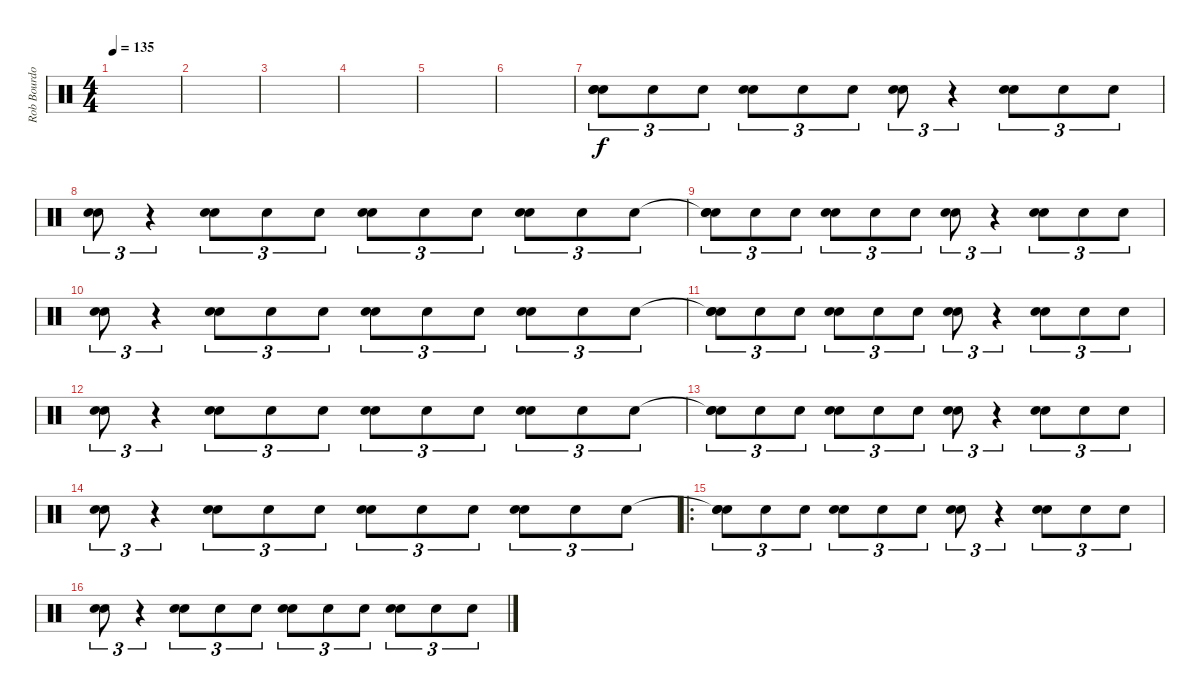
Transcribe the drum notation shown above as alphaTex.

\track ("Rob Bourdon [Drums]" "Rob Bourdo") {instrument percussion bank 5}
\staff {score}
\articulation defaults
\ts (4 4)
\tempo 135
\clef neutral
\ks c
|
|
|
|
|
|
("Snare (hit)" "Hand Clap (hit)" "Electric Snare (hit)").8{tu (3 2) volume 3} "Electric Snare (hit)".8{tu (3 2)} "Electric Snare (hit)".8{tu (3 2)} ("Hand Clap (hit)" "Electric Snare (hit)").8{tu (3 2)} "Electric Snare (hit)".8{tu (3 2)} "Electric Snare (hit)".8{tu (3 2)} ("Hand Clap (hit)" "Electric Snare (hit)").8{tu (3 2)} r.4{tu (3 2)} ("Hand Clap (hit)" "Electric Snare (hit)").8{tu (3 2)} "Electric Snare (hit)".8{tu (3 2)} "Electric Snare (hit)".8{tu (3 2)} |
("Hand Clap (hit)" "Electric Snare (hit)").8{tu (3 2)} r.4{tu (3 2)} ("Hand Clap (hit)" "Electric Snare (hit)").8{tu (3 2)} "Electric Snare (hit)".8{tu (3 2)} "Electric Snare (hit)".8{tu (3 2)} ("Hand Clap (hit)" "Electric Snare (hit)").8{tu (3 2)} "Electric Snare (hit)".8{tu (3 2)} "Electric Snare (hit)".8{tu (3 2)} ("Hand Clap (hit)" "Electric Snare (hit)").8{tu (3 2)} "Electric Snare (hit)".8{tu (3 2)} "Electric Snare (hit)".8{tu (3 2)} |
("Snare (hit)"{t} "Hand Clap (hit)" "Electric Snare (hit)").8{tu (3 2)} "Electric Snare (hit)".8{tu (3 2)} "Electric Snare (hit)".8{tu (3 2)} ("Hand Clap (hit)" "Electric Snare (hit)").8{tu (3 2)} "Electric Snare (hit)".8{tu (3 2)} "Electric Snare (hit)".8{tu (3 2)} ("Hand Clap (hit)" "Electric Snare (hit)").8{tu (3 2)} r.4{tu (3 2)} ("Hand Clap (hit)" "Electric Snare (hit)").8{tu (3 2)} "Electric Snare (hit)".8{tu (3 2)} "Electric Snare (hit)".8{tu (3 2)} |
("Hand Clap (hit)" "Electric Snare (hit)").8{tu (3 2)} r.4{tu (3 2)} ("Hand Clap (hit)" "Electric Snare (hit)").8{tu (3 2)} "Electric Snare (hit)".8{tu (3 2)} "Electric Snare (hit)".8{tu (3 2)} ("Hand Clap (hit)" "Electric Snare (hit)").8{tu (3 2)} "Electric Snare (hit)".8{tu (3 2)} "Electric Snare (hit)".8{tu (3 2)} ("Hand Clap (hit)" "Electric Snare (hit)").8{tu (3 2)} "Electric Snare (hit)".8{tu (3 2)} "Electric Snare (hit)".8{tu (3 2)} |
("Snare (hit)"{t} "Hand Clap (hit)" "Electric Snare (hit)").8{tu (3 2)} "Electric Snare (hit)".8{tu (3 2)} "Electric Snare (hit)".8{tu (3 2)} ("Hand Clap (hit)" "Electric Snare (hit)").8{tu (3 2)} "Electric Snare (hit)".8{tu (3 2)} "Electric Snare (hit)".8{tu (3 2)} ("Hand Clap (hit)" "Electric Snare (hit)").8{tu (3 2)} r.4{tu (3 2)} ("Hand Clap (hit)" "Electric Snare (hit)").8{tu (3 2)} "Electric Snare (hit)".8{tu (3 2)} "Electric Snare (hit)".8{tu (3 2)} |
("Hand Clap (hit)" "Electric Snare (hit)").8{tu (3 2)} r.4{tu (3 2)} ("Hand Clap (hit)" "Electric Snare (hit)").8{tu (3 2)} "Electric Snare (hit)".8{tu (3 2)} "Electric Snare (hit)".8{tu (3 2)} ("Hand Clap (hit)" "Electric Snare (hit)").8{tu (3 2)} "Electric Snare (hit)".8{tu (3 2)} "Electric Snare (hit)".8{tu (3 2)} ("Hand Clap (hit)" "Electric Snare (hit)").8{tu (3 2)} "Electric Snare (hit)".8{tu (3 2)} "Electric Snare (hit)".8{tu (3 2)} |
("Snare (hit)"{t} "Hand Clap (hit)" "Electric Snare (hit)").8{tu (3 2) volume 10} "Electric Snare (hit)".8{tu (3 2)} "Electric Snare (hit)".8{tu (3 2)} ("Hand Clap (hit)" "Electric Snare (hit)").8{tu (3 2)} "Electric Snare (hit)".8{tu (3 2)} "Electric Snare (hit)".8{tu (3 2)} ("Hand Clap (hit)" "Electric Snare (hit)").8{tu (3 2)} r.4{tu (3 2)} ("Hand Clap (hit)" "Electric Snare (hit)").8{tu (3 2)} "Electric Snare (hit)".8{tu (3 2)} "Electric Snare (hit)".8{tu (3 2)} |
("Hand Clap (hit)" "Electric Snare (hit)").8{tu (3 2)} r.4{tu (3 2)} ("Hand Clap (hit)" "Electric Snare (hit)").8{tu (3 2)} "Electric Snare (hit)".8{tu (3 2)} "Electric Snare (hit)".8{tu (3 2)} ("Hand Clap (hit)" "Electric Snare (hit)").8{tu (3 2)} "Electric Snare (hit)".8{tu (3 2)} "Electric Snare (hit)".8{tu (3 2)} ("Hand Clap (hit)" "Electric Snare (hit)").8{tu (3 2)} "Electric Snare (hit)".8{tu (3 2)} "Electric Snare (hit)".8{tu (3 2)} |
\ro
("Snare (hit)"{t} "Hand Clap (hit)" "Electric Snare (hit)").8{tu (3 2)} "Electric Snare (hit)".8{tu (3 2)} "Electric Snare (hit)".8{tu (3 2)} ("Hand Clap (hit)" "Electric Snare (hit)").8{tu (3 2)} "Electric Snare (hit)".8{tu (3 2)} "Electric Snare (hit)".8{tu (3 2)} ("Hand Clap (hit)" "Electric Snare (hit)").8{tu (3 2)} r.4{tu (3 2)} ("Hand Clap (hit)" "Electric Snare (hit)").8{tu (3 2)} "Electric Snare (hit)".8{tu (3 2)} "Electric Snare (hit)".8{tu (3 2)} |
("Hand Clap (hit)" "Electric Snare (hit)").8{tu (3 2)} r.4{tu (3 2)} ("Hand Clap (hit)" "Electric Snare (hit)").8{tu (3 2)} "Electric Snare (hit)".8{tu (3 2)} "Electric Snare (hit)".8{tu (3 2)} ("Hand Clap (hit)" "Electric Snare (hit)").8{tu (3 2)} "Electric Snare (hit)".8{tu (3 2)} "Electric Snare (hit)".8{tu (3 2)} ("Hand Clap (hit)" "Electric Snare (hit)").8{tu (3 2)} "Electric Snare (hit)".8{tu (3 2)} "Electric Snare (hit)".8{tu (3 2)}
